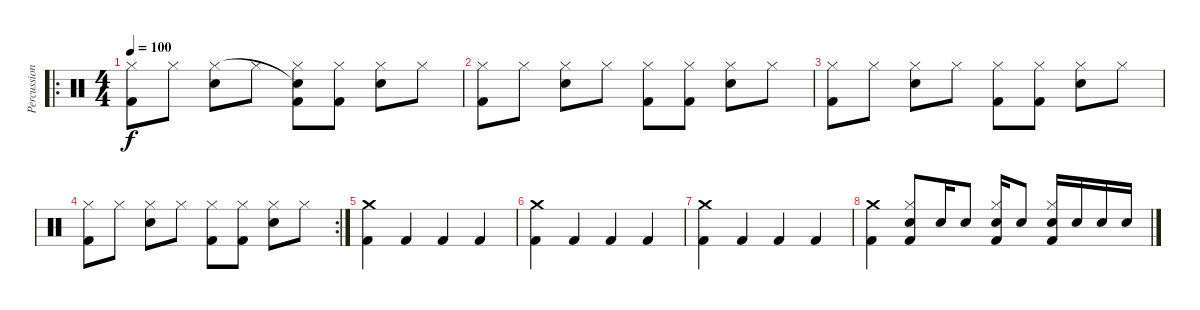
\track ("Percussions" "Percussion") {instrument percussion}
\staff {score}
\articulation defaults
\ro
\ts (4 4)
\tempo 100
\clef neutral
\ks c
("Kick (hit) 2" "Hi-Hat (closed)").8{dy f} "Hi-Hat (closed)".8 ("Electric Snare (hit)" "Hi-Hat (closed)").8 "Hi-Hat (closed)".8 ("Kick (hit) 2" "Snare (hit)"{t} "Hi-Hat (closed)").8 ("Kick (hit) 2" "Hi-Hat (closed)").8 ("Electric Snare (hit)" "Hi-Hat (closed)").8 "Hi-Hat (closed)".8 |
("Kick (hit) 2" "Hi-Hat (closed)").8 "Hi-Hat (closed)".8 ("Electric Snare (hit)" "Hi-Hat (closed)").8 "Hi-Hat (closed)".8 ("Kick (hit) 2" "Hi-Hat (closed)").8 ("Kick (hit) 2" "Hi-Hat (closed)").8 ("Electric Snare (hit)" "Hi-Hat (closed)").8 "Hi-Hat (closed)".8 |
("Kick (hit) 2" "Hi-Hat (closed)").8 "Hi-Hat (closed)".8 ("Electric Snare (hit)" "Hi-Hat (closed)").8 "Hi-Hat (closed)".8 ("Kick (hit) 2" "Hi-Hat (closed)").8 ("Kick (hit) 2" "Hi-Hat (closed)").8 ("Electric Snare (hit)" "Hi-Hat (closed)").8 "Hi-Hat (closed)".8 |
\rc 2
("Kick (hit) 2" "Hi-Hat (closed)").8 "Hi-Hat (closed)".8 ("Electric Snare (hit)" "Hi-Hat (closed)").8 "Hi-Hat (closed)".8 ("Kick (hit) 2" "Hi-Hat (closed)").8 ("Kick (hit) 2" "Hi-Hat (closed)").8 ("Electric Snare (hit)" "Hi-Hat (closed)").8 "Hi-Hat (closed)".8 |
("Kick (hit) 2" "Crash medium (hit)").4 "Kick (hit) 2".4 "Kick (hit) 2".4 "Kick (hit) 2".4 |
("Kick (hit) 2" "Crash medium (hit)").4 "Kick (hit) 2".4 "Kick (hit) 2".4 "Kick (hit) 2".4 |
("Kick (hit) 2" "Crash medium (hit)").4 "Kick (hit) 2".4 "Kick (hit) 2".4 "Kick (hit) 2".4 |
("Kick (hit) 2" "Crash medium (hit)").4 ("Kick (hit) 2" "Electric Snare (hit)" "Hi-Hat (closed)").8 "Electric Snare (hit)".16 "Electric Snare (hit)".8 ("Kick (hit) 2" "Electric Snare (hit)" "Hi-Hat (closed)").16 "Electric Snare (hit)".8 ("Kick (hit) 2" "Electric Snare (hit)" "Hi-Hat (closed)").16 "Electric Snare (hit)".16 "Electric Snare (hit)".16 "Electric Snare (hit)".16
